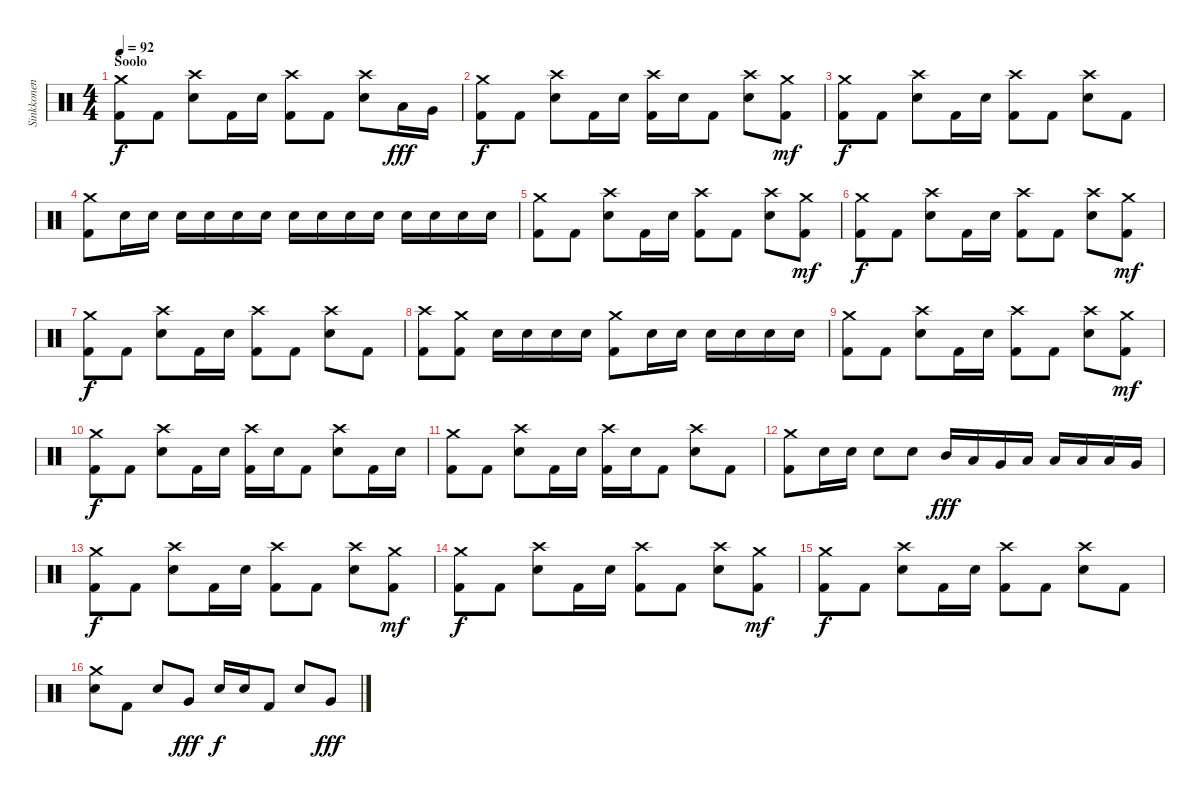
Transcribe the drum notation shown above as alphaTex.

\track ("Sinkkonen" "Sinkkonen") {instrument percussion}
\staff {score}
\articulation defaults
\ts (4 4)
\section ("" "Soolo")
\tempo 92
\clef neutral
\ks c
("Kick (hit) 2" "Crash medium (hit)").8{dy f} "Kick (hit) 2".8 ("Crash high (hit)" "Snare (hit) 2").8 "Kick (hit) 2".16 "Snare (hit) 2".16 ("Kick (hit) 2" "Crash high (hit)").8 "Kick (hit) 2".8 ("Crash high (hit)" "Snare (hit) 2").8 "Low Tom (hit)".16{dy fff} "Very Low Tom (hit)".16 |
("Kick (hit) 2" "Crash medium (hit)").8{dy f} "Kick (hit) 2".8 ("Crash high (hit)" "Snare (hit) 2").8 "Kick (hit) 2".16 "Snare (hit) 2".16 ("Kick (hit) 2" "Crash high (hit)").16 "Snare (hit) 2".16 "Kick (hit) 2".8 ("Crash high (hit)" "Snare (hit) 2").8 ("Kick (hit) 2" "Crash medium (hit)").8{dy mf} |
("Kick (hit) 2" "Crash medium (hit)").8{dy f} "Kick (hit) 2".8 ("Crash high (hit)" "Snare (hit) 2").8 "Kick (hit) 2".16 "Snare (hit) 2".16 ("Kick (hit) 2" "Crash high (hit)").8 "Kick (hit) 2".8 ("Crash high (hit)" "Snare (hit) 2").8 "Kick (hit) 2".8 |
("Kick (hit) 2" "Crash medium (hit)").8 "Snare (hit) 2".16 "Snare (hit) 2".16 "Snare (hit) 2".16 "Snare (hit) 2".16 "Snare (hit) 2".16 "Snare (hit) 2".16 "Snare (hit) 2".16 "Snare (hit) 2".16 "Snare (hit) 2".16 "Snare (hit) 2".16 "Snare (hit) 2".16 "Snare (hit) 2".16 "Snare (hit) 2".16 "Snare (hit) 2".16 |
("Kick (hit) 2" "Crash medium (hit)").8 "Kick (hit) 2".8 ("Crash high (hit)" "Snare (hit) 2").8 "Kick (hit) 2".16 "Snare (hit) 2".16 ("Kick (hit) 2" "Crash high (hit)").8 "Kick (hit) 2".8 ("Crash high (hit)" "Snare (hit) 2").8 ("Kick (hit) 2" "Crash medium (hit)").8{dy mf} |
("Kick (hit) 2" "Crash medium (hit)").8{dy f} "Kick (hit) 2".8 ("Crash high (hit)" "Snare (hit) 2").8 "Kick (hit) 2".16 "Snare (hit) 2".16 ("Kick (hit) 2" "Crash high (hit)").8 "Kick (hit) 2".8 ("Crash high (hit)" "Snare (hit) 2").8 ("Kick (hit) 2" "Crash medium (hit)").8{dy mf} |
("Kick (hit) 2" "Crash medium (hit)").8{dy f} "Kick (hit) 2".8 ("Crash high (hit)" "Snare (hit) 2").8 "Kick (hit) 2".16 "Snare (hit) 2".16 ("Kick (hit) 2" "Crash high (hit)").8 "Kick (hit) 2".8 ("Crash high (hit)" "Snare (hit) 2").8 "Kick (hit) 2".8 |
("Kick (hit) 2" "Crash high (hit)").8 ("Kick (hit) 2" "Crash medium (hit)").8 "Snare (hit) 2".16 "Snare (hit) 2".16 "Snare (hit) 2".16 "Snare (hit) 2".16 ("Kick (hit) 2" "Crash medium (hit)").8 "Snare (hit) 2".16 "Snare (hit) 2".16 "Snare (hit) 2".16 "Snare (hit) 2".16 "Snare (hit) 2".16 "Snare (hit) 2".16 |
("Kick (hit) 2" "Crash medium (hit)").8 "Kick (hit) 2".8 ("Crash high (hit)" "Snare (hit) 2").8 "Kick (hit) 2".16 "Snare (hit) 2".16 ("Kick (hit) 2" "Crash high (hit)").8 "Kick (hit) 2".8 ("Crash high (hit)" "Snare (hit) 2").8 ("Kick (hit) 2" "Crash medium (hit)").8{dy mf} |
("Kick (hit) 2" "Crash medium (hit)").8{dy f} "Kick (hit) 2".8 ("Crash high (hit)" "Snare (hit) 2").8 "Kick (hit) 2".16 "Snare (hit) 2".16 ("Kick (hit) 2" "Crash high (hit)").16 "Snare (hit) 2".16 "Kick (hit) 2".8 ("Crash high (hit)" "Snare (hit) 2").8 "Kick (hit) 2".16 "Snare (hit) 2".16 |
("Kick (hit) 2" "Crash medium (hit)").8 "Kick (hit) 2".8 ("Crash high (hit)" "Snare (hit) 2").8 "Kick (hit) 2".16 "Snare (hit) 2".16 ("Kick (hit) 2" "Crash high (hit)").16 "Snare (hit) 2".16 "Kick (hit) 2".8 ("Crash high (hit)" "Snare (hit) 2").8 "Kick (hit) 2".8 |
("Kick (hit) 2" "Crash medium (hit)").8 "Snare (hit) 2".16 "Snare (hit) 2".16 "Snare (hit) 2".8 "Snare (hit) 2".8 "Mid Tom (hit)".16{dy fff} "Low Tom (hit)".16 "Very Low Tom (hit)".16 "Low Floor Tom (hit)".16 "Low Floor Tom (hit)".16 "Low Floor Tom (hit)".16 "Low Floor Tom (hit)".16 "Very Low Tom (hit)".16 |
("Kick (hit) 2" "Crash medium (hit)").8{dy f} "Kick (hit) 2".8 ("Crash high (hit)" "Snare (hit) 2").8 "Kick (hit) 2".16 "Snare (hit) 2".16 ("Kick (hit) 2" "Crash high (hit)").8 "Kick (hit) 2".8 ("Crash high (hit)" "Snare (hit) 2").8 ("Kick (hit) 2" "Crash medium (hit)").8{dy mf} |
("Kick (hit) 2" "Crash medium (hit)").8{dy f} "Kick (hit) 2".8 ("Crash high (hit)" "Snare (hit) 2").8 "Kick (hit) 2".16 "Snare (hit) 2".16 ("Kick (hit) 2" "Crash high (hit)").8 "Kick (hit) 2".8 ("Crash high (hit)" "Snare (hit) 2").8 ("Kick (hit) 2" "Crash medium (hit)").8{dy mf} |
("Kick (hit) 2" "Crash medium (hit)").8{dy f} "Kick (hit) 2".8 ("Crash high (hit)" "Snare (hit) 2").8 "Kick (hit) 2".16 "Snare (hit) 2".16 ("Kick (hit) 2" "Crash high (hit)").8 "Kick (hit) 2".8 ("Crash high (hit)" "Snare (hit) 2").8 "Kick (hit) 2".8 |
("Crash medium (hit)" "Snare (hit) 2").8 "Kick (hit) 2".8 "Snare (hit) 2".8 "Very Low Tom (hit)".8{dy fff} "Snare (hit) 2".16{dy f} "Snare (hit) 2".16 "Kick (hit) 2".8 "Snare (hit) 2".8 "Very Low Tom (hit)".8{dy fff}
